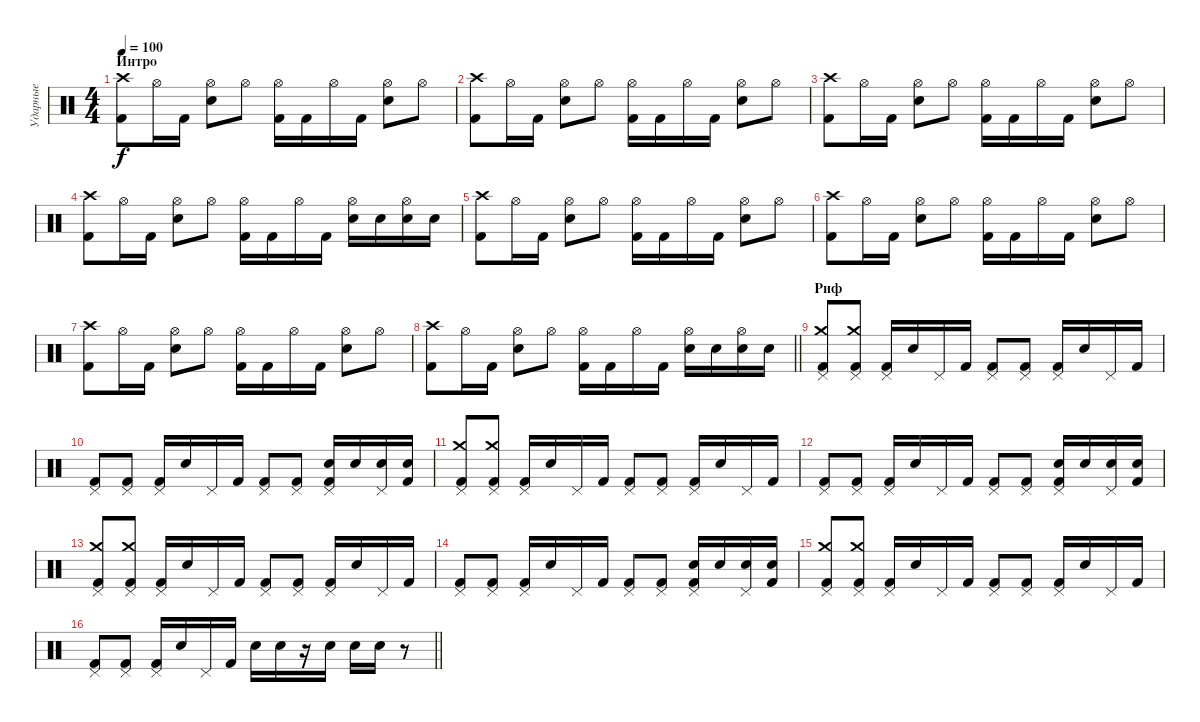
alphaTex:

\track ("Ударные" "Ударные") {instrument percussion}
\staff {score}
\articulation defaults
\ts (4 4)
\section ("" "Интро")
\tempo 100
\clef neutral
\ks c
("Kick (hit) 2" "Crash high (hit)").8{dy f} "Hi-Hat (open)".16 "Kick (hit) 2".16 ("Hi-Hat (open)" "Snare (hit) 2").8 "Hi-Hat (open)".8 ("Hi-Hat (open)" "Kick (hit) 2").16 "Kick (hit) 2".16 "Hi-Hat (open)".16 "Kick (hit) 2".16 ("Hi-Hat (open)" "Snare (hit) 2").8 "Hi-Hat (open)".8 |
("Kick (hit) 2" "Crash high (hit)").8 "Hi-Hat (open)".16 "Kick (hit) 2".16 ("Hi-Hat (open)" "Snare (hit) 2").8 "Hi-Hat (open)".8 ("Hi-Hat (open)" "Kick (hit) 2").16 "Kick (hit) 2".16 "Hi-Hat (open)".16 "Kick (hit) 2".16 ("Hi-Hat (open)" "Snare (hit) 2").8 "Hi-Hat (open)".8 |
("Kick (hit) 2" "Crash high (hit)").8 "Hi-Hat (open)".16 "Kick (hit) 2".16 ("Hi-Hat (open)" "Snare (hit) 2").8 "Hi-Hat (open)".8 ("Hi-Hat (open)" "Kick (hit) 2").16 "Kick (hit) 2".16 "Hi-Hat (open)".16 "Kick (hit) 2".16 ("Hi-Hat (open)" "Snare (hit) 2").8 "Hi-Hat (open)".8 |
("Kick (hit) 2" "Crash high (hit)").8 "Hi-Hat (open)".16 "Kick (hit) 2".16 ("Hi-Hat (open)" "Snare (hit) 2").8 "Hi-Hat (open)".8 ("Hi-Hat (open)" "Kick (hit) 2").16 "Kick (hit) 2".16 "Hi-Hat (open)".16 "Kick (hit) 2".16 ("Hi-Hat (open)" "Snare (hit) 2").16 "Snare (hit) 2".16 ("Snare (hit) 2" "Hi-Hat (open)").16 "Snare (hit) 2".16 |
("Kick (hit) 2" "Crash high (hit)").8 "Hi-Hat (open)".16 "Kick (hit) 2".16 ("Hi-Hat (open)" "Snare (hit) 2").8 "Hi-Hat (open)".8 ("Hi-Hat (open)" "Kick (hit) 2").16 "Kick (hit) 2".16 "Hi-Hat (open)".16 "Kick (hit) 2".16 ("Hi-Hat (open)" "Snare (hit) 2").8 "Hi-Hat (open)".8 |
("Kick (hit) 2" "Crash high (hit)").8 "Hi-Hat (open)".16 "Kick (hit) 2".16 ("Hi-Hat (open)" "Snare (hit) 2").8 "Hi-Hat (open)".8 ("Hi-Hat (open)" "Kick (hit) 2").16 "Kick (hit) 2".16 "Hi-Hat (open)".16 "Kick (hit) 2".16 ("Hi-Hat (open)" "Snare (hit) 2").8 "Hi-Hat (open)".8 |
("Kick (hit) 2" "Crash high (hit)").8 "Hi-Hat (open)".16 "Kick (hit) 2".16 ("Hi-Hat (open)" "Snare (hit) 2").8 "Hi-Hat (open)".8 ("Hi-Hat (open)" "Kick (hit) 2").16 "Kick (hit) 2".16 "Hi-Hat (open)".16 "Kick (hit) 2".16 ("Hi-Hat (open)" "Snare (hit) 2").8 "Hi-Hat (open)".8 |
\barLineRight lightlight
("Kick (hit) 2" "Crash high (hit)").8 "Hi-Hat (open)".16 "Kick (hit) 2".16 ("Hi-Hat (open)" "Snare (hit) 2").8 "Hi-Hat (open)".8 ("Hi-Hat (open)" "Kick (hit) 2").16 "Kick (hit) 2".16 "Hi-Hat (open)".16 "Kick (hit) 2".16 ("Hi-Hat (open)" "Snare (hit) 2").16 "Snare (hit) 2".16 ("Snare (hit) 2" "Hi-Hat (open)").16 "Snare (hit) 2".16 |
\section ("" "Риф")
("Kick (hit) 2" "Crash medium (hit)" "Pedal Hi-Hat (hit)").8 ("Kick (hit) 2" "Crash medium (hit)" "Pedal Hi-Hat (hit)").8 ("Pedal Hi-Hat (hit)" "Kick (hit) 2").16 "Snare (hit) 2".16 "Pedal Hi-Hat (hit)".16 "Kick (hit) 2".16 ("Pedal Hi-Hat (hit)" "Kick (hit) 2").8 ("Pedal Hi-Hat (hit)" "Kick (hit) 2").8 ("Pedal Hi-Hat (hit)" "Kick (hit) 2").16 "Snare (hit) 2".16 "Pedal Hi-Hat (hit)".16 "Kick (hit) 2".16 |
("Pedal Hi-Hat (hit)" "Kick (hit) 2").8 ("Pedal Hi-Hat (hit)" "Kick (hit) 2").8 ("Pedal Hi-Hat (hit)" "Kick (hit) 2").16 "Snare (hit) 2".16 "Pedal Hi-Hat (hit)".16 "Kick (hit) 2".16 ("Pedal Hi-Hat (hit)" "Kick (hit) 2").8 ("Pedal Hi-Hat (hit)" "Kick (hit) 2").8 ("Pedal Hi-Hat (hit)" "Kick (hit) 2" "Snare (hit) 2").16 "Snare (hit) 2".16 ("Pedal Hi-Hat (hit)" "Snare (hit) 2").16 ("Kick (hit) 2" "Snare (hit) 2").16 |
("Kick (hit) 2" "Crash medium (hit)" "Pedal Hi-Hat (hit)").8 ("Kick (hit) 2" "Crash medium (hit)" "Pedal Hi-Hat (hit)").8 ("Pedal Hi-Hat (hit)" "Kick (hit) 2").16 "Snare (hit) 2".16 "Pedal Hi-Hat (hit)".16 "Kick (hit) 2".16 ("Pedal Hi-Hat (hit)" "Kick (hit) 2").8 ("Pedal Hi-Hat (hit)" "Kick (hit) 2").8 ("Pedal Hi-Hat (hit)" "Kick (hit) 2").16 "Snare (hit) 2".16 "Pedal Hi-Hat (hit)".16 "Kick (hit) 2".16 |
("Pedal Hi-Hat (hit)" "Kick (hit) 2").8 ("Pedal Hi-Hat (hit)" "Kick (hit) 2").8 ("Pedal Hi-Hat (hit)" "Kick (hit) 2").16 "Snare (hit) 2".16 "Pedal Hi-Hat (hit)".16 "Kick (hit) 2".16 ("Pedal Hi-Hat (hit)" "Kick (hit) 2").8 ("Pedal Hi-Hat (hit)" "Kick (hit) 2").8 ("Pedal Hi-Hat (hit)" "Kick (hit) 2" "Snare (hit) 2").16 "Snare (hit) 2".16 ("Pedal Hi-Hat (hit)" "Snare (hit) 2").16 ("Kick (hit) 2" "Snare (hit) 2").16 |
("Kick (hit) 2" "Crash medium (hit)" "Pedal Hi-Hat (hit)").8 ("Kick (hit) 2" "Crash medium (hit)" "Pedal Hi-Hat (hit)").8 ("Pedal Hi-Hat (hit)" "Kick (hit) 2").16 "Snare (hit) 2".16 "Pedal Hi-Hat (hit)".16 "Kick (hit) 2".16 ("Pedal Hi-Hat (hit)" "Kick (hit) 2").8 ("Pedal Hi-Hat (hit)" "Kick (hit) 2").8 ("Pedal Hi-Hat (hit)" "Kick (hit) 2").16 "Snare (hit) 2".16 "Pedal Hi-Hat (hit)".16 "Kick (hit) 2".16 |
("Pedal Hi-Hat (hit)" "Kick (hit) 2").8 ("Pedal Hi-Hat (hit)" "Kick (hit) 2").8 ("Pedal Hi-Hat (hit)" "Kick (hit) 2").16 "Snare (hit) 2".16 "Pedal Hi-Hat (hit)".16 "Kick (hit) 2".16 ("Pedal Hi-Hat (hit)" "Kick (hit) 2").8 ("Pedal Hi-Hat (hit)" "Kick (hit) 2").8 ("Pedal Hi-Hat (hit)" "Kick (hit) 2" "Snare (hit) 2").16 "Snare (hit) 2".16 ("Pedal Hi-Hat (hit)" "Snare (hit) 2").16 ("Kick (hit) 2" "Snare (hit) 2").16 |
("Kick (hit) 2" "Crash medium (hit)" "Pedal Hi-Hat (hit)").8 ("Kick (hit) 2" "Crash medium (hit)" "Pedal Hi-Hat (hit)").8 ("Pedal Hi-Hat (hit)" "Kick (hit) 2").16 "Snare (hit) 2".16 "Pedal Hi-Hat (hit)".16 "Kick (hit) 2".16 ("Pedal Hi-Hat (hit)" "Kick (hit) 2").8 ("Pedal Hi-Hat (hit)" "Kick (hit) 2").8 ("Pedal Hi-Hat (hit)" "Kick (hit) 2").16 "Snare (hit) 2".16 "Pedal Hi-Hat (hit)".16 "Kick (hit) 2".16 |
\barLineRight lightlight
("Pedal Hi-Hat (hit)" "Kick (hit) 2").8 ("Pedal Hi-Hat (hit)" "Kick (hit) 2").8 ("Pedal Hi-Hat (hit)" "Kick (hit) 2").16 "Snare (hit) 2".16 "Pedal Hi-Hat (hit)".16 "Kick (hit) 2".16 "Snare (hit) 2".16 "Snare (hit) 2".16 r.16 "Snare (hit) 2".16 "Snare (hit) 2".16 "Snare (hit) 2".16 r.8
